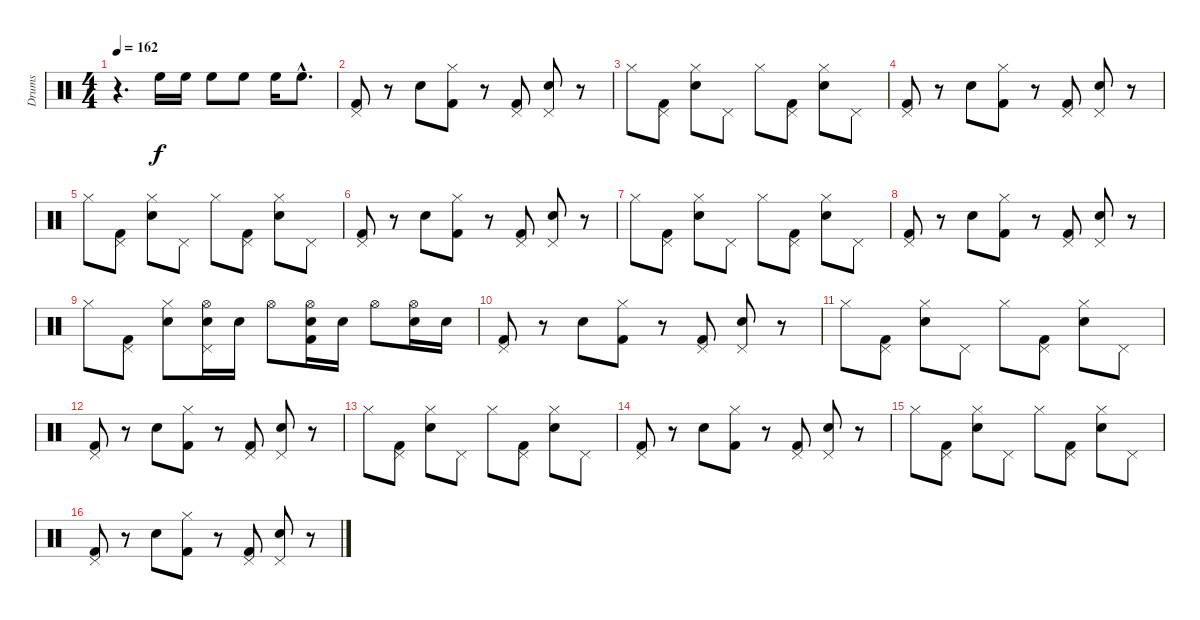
\track ("Drums" "Drums") {instrument percussion}
\staff {score}
\articulation defaults
\ts (4 4)
\tempo 162
\clef neutral
\ks c
r.4{d dy f} "High Floor Tom (hit)".16 "High Floor Tom (hit)".16 "High Floor Tom (hit)".8 "High Floor Tom (hit)".8 "High Floor Tom (hit)".16 "High Floor Tom (hit)"{hac}.8{d} |
("Kick (hit) 2" "Pedal Hi-Hat (hit)").8 r.8 "Electric Snare (hit)".8 ("Kick (hit) 2" "Hi-Hat (closed)").8 r.8 ("Kick (hit) 2" "Pedal Hi-Hat (hit)").8 ("Pedal Hi-Hat (hit)" "Electric Snare (hit)").8 r.8 |
"Hi-Hat (closed)".8 ("Kick (hit) 2" "Pedal Hi-Hat (hit)").8 ("Electric Snare (hit)" "Hi-Hat (closed)").8 "Pedal Hi-Hat (hit)".8 "Hi-Hat (closed)".8 ("Kick (hit) 2" "Pedal Hi-Hat (hit)").8 ("Electric Snare (hit)" "Hi-Hat (closed)").8 "Pedal Hi-Hat (hit)".8 |
("Kick (hit) 2" "Pedal Hi-Hat (hit)").8 r.8 "Electric Snare (hit)".8 ("Kick (hit) 2" "Hi-Hat (closed)").8 r.8 ("Kick (hit) 2" "Pedal Hi-Hat (hit)").8 ("Pedal Hi-Hat (hit)" "Electric Snare (hit)").8 r.8 |
"Hi-Hat (closed)".8 ("Kick (hit) 2" "Pedal Hi-Hat (hit)").8 ("Electric Snare (hit)" "Hi-Hat (closed)").8 "Pedal Hi-Hat (hit)".8 "Hi-Hat (closed)".8 ("Kick (hit) 2" "Pedal Hi-Hat (hit)").8 ("Electric Snare (hit)" "Hi-Hat (closed)").8 "Pedal Hi-Hat (hit)".8 |
("Kick (hit) 2" "Pedal Hi-Hat (hit)").8 r.8 "Electric Snare (hit)".8 ("Kick (hit) 2" "Hi-Hat (closed)").8 r.8 ("Kick (hit) 2" "Pedal Hi-Hat (hit)").8 ("Pedal Hi-Hat (hit)" "Electric Snare (hit)").8 r.8 |
"Hi-Hat (closed)".8 ("Kick (hit) 2" "Pedal Hi-Hat (hit)").8 ("Electric Snare (hit)" "Hi-Hat (closed)").8 "Pedal Hi-Hat (hit)".8 "Hi-Hat (closed)".8 ("Kick (hit) 2" "Pedal Hi-Hat (hit)").8 ("Electric Snare (hit)" "Hi-Hat (closed)").8 "Pedal Hi-Hat (hit)".8 |
("Kick (hit) 2" "Pedal Hi-Hat (hit)").8 r.8 "Electric Snare (hit)".8 ("Kick (hit) 2" "Hi-Hat (closed)").8 r.8 ("Kick (hit) 2" "Pedal Hi-Hat (hit)").8 ("Pedal Hi-Hat (hit)" "Electric Snare (hit)").8 r.8 |
"Hi-Hat (closed)".8 ("Kick (hit) 2" "Pedal Hi-Hat (hit)").8 ("Electric Snare (hit)" "Hi-Hat (closed)").8 ("Hi-Hat (open)" "Electric Snare (hit)" "Pedal Hi-Hat (hit)").16 "Electric Snare (hit)".16 "Hi-Hat (open)".8 ("Hi-Hat (open)" "Electric Snare (hit)" "Kick (hit) 2").16 "Electric Snare (hit)".16 "Hi-Hat (open)".8 ("Hi-Hat (open)" "Electric Snare (hit)").16 "Electric Snare (hit)".16 |
("Kick (hit) 2" "Pedal Hi-Hat (hit)").8 r.8 "Electric Snare (hit)".8 ("Kick (hit) 2" "Hi-Hat (closed)").8 r.8 ("Kick (hit) 2" "Pedal Hi-Hat (hit)").8 ("Pedal Hi-Hat (hit)" "Electric Snare (hit)").8 r.8 |
"Hi-Hat (closed)".8 ("Kick (hit) 2" "Pedal Hi-Hat (hit)").8 ("Electric Snare (hit)" "Hi-Hat (closed)").8 "Pedal Hi-Hat (hit)".8 "Hi-Hat (closed)".8 ("Kick (hit) 2" "Pedal Hi-Hat (hit)").8 ("Electric Snare (hit)" "Hi-Hat (closed)").8 "Pedal Hi-Hat (hit)".8 |
("Kick (hit) 2" "Pedal Hi-Hat (hit)").8 r.8 "Electric Snare (hit)".8 ("Kick (hit) 2" "Hi-Hat (closed)").8 r.8 ("Kick (hit) 2" "Pedal Hi-Hat (hit)").8 ("Pedal Hi-Hat (hit)" "Electric Snare (hit)").8 r.8 |
"Hi-Hat (closed)".8 ("Kick (hit) 2" "Pedal Hi-Hat (hit)").8 ("Electric Snare (hit)" "Hi-Hat (closed)").8 "Pedal Hi-Hat (hit)".8 "Hi-Hat (closed)".8 ("Kick (hit) 2" "Pedal Hi-Hat (hit)").8 ("Electric Snare (hit)" "Hi-Hat (closed)").8 "Pedal Hi-Hat (hit)".8 |
("Kick (hit) 2" "Pedal Hi-Hat (hit)").8 r.8 "Electric Snare (hit)".8 ("Kick (hit) 2" "Hi-Hat (closed)").8 r.8 ("Kick (hit) 2" "Pedal Hi-Hat (hit)").8 ("Pedal Hi-Hat (hit)" "Electric Snare (hit)").8 r.8 |
"Hi-Hat (closed)".8 ("Kick (hit) 2" "Pedal Hi-Hat (hit)").8 ("Electric Snare (hit)" "Hi-Hat (closed)").8 "Pedal Hi-Hat (hit)".8 "Hi-Hat (closed)".8 ("Kick (hit) 2" "Pedal Hi-Hat (hit)").8 ("Electric Snare (hit)" "Hi-Hat (closed)").8 "Pedal Hi-Hat (hit)".8 |
("Kick (hit) 2" "Pedal Hi-Hat (hit)").8 r.8 "Electric Snare (hit)".8 ("Kick (hit) 2" "Hi-Hat (closed)").8 r.8 ("Kick (hit) 2" "Pedal Hi-Hat (hit)").8 ("Pedal Hi-Hat (hit)" "Electric Snare (hit)").8 r.8
